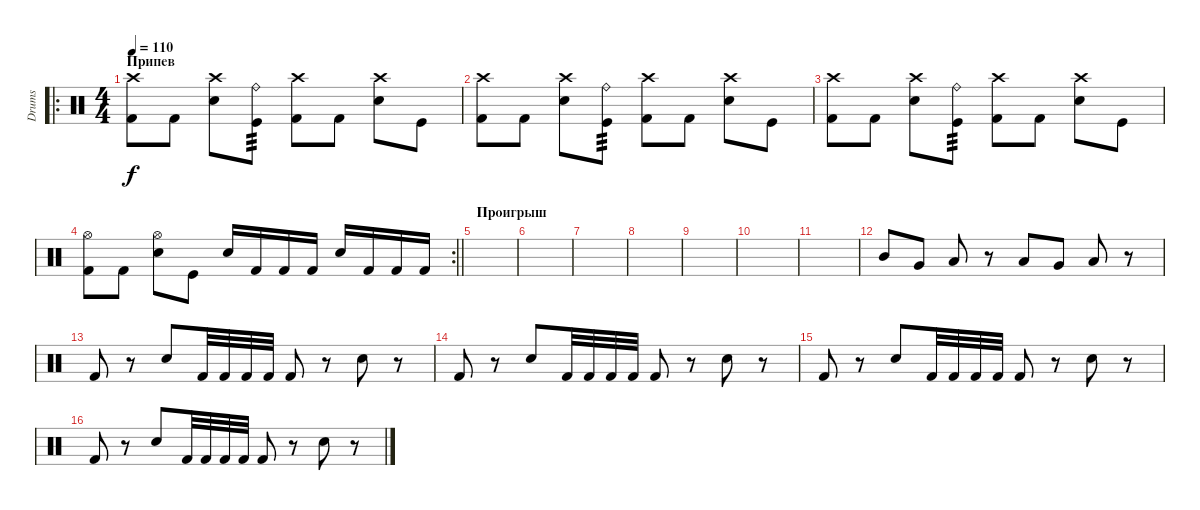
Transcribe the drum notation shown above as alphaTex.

\track ("Drums" "Drums") {instrument percussion}
\staff {score}
\articulation defaults
\ro
\ts (4 4)
\section ("" "Припев")
\tempo 110
\clef neutral
\ks c
("Crash high (hit)" "Kick (hit) 2").8{dy f} "Kick (hit) 2".8 ("Crash high (hit)" "Electric Snare (hit)").8 ("Ride (bell)" "Kick (hit)").8{tp 3} ("Crash high (hit)" "Kick (hit) 2").8 "Kick (hit) 2".8 ("Crash high (hit)" "Electric Snare (hit)").8 "Kick (hit)".8 |
("Crash high (hit)" "Kick (hit) 2").8 "Kick (hit) 2".8 ("Crash high (hit)" "Electric Snare (hit)").8 ("Ride (bell)" "Kick (hit)").8{tp 3} ("Crash high (hit)" "Kick (hit) 2").8 "Kick (hit) 2".8 ("Crash high (hit)" "Electric Snare (hit)").8 "Kick (hit)".8 |
("Crash high (hit)" "Kick (hit) 2").8 "Kick (hit) 2".8 ("Crash high (hit)" "Electric Snare (hit)").8 ("Ride (bell)" "Kick (hit)").8{tp 3} ("Crash high (hit)" "Kick (hit) 2").8 "Kick (hit) 2".8 ("Crash high (hit)" "Electric Snare (hit)").8 "Kick (hit)".8 |
\rc 2
\barLineRight lightlight
("Hi-Hat (open)" "Kick (hit) 2").8 "Kick (hit) 2".8 ("Hi-Hat (open)" "Electric Snare (hit)").8 "Kick (hit)".8 "Electric Snare (hit)".16 "Kick (hit) 2".16 "Kick (hit) 2".16 "Kick (hit) 2".16 "Electric Snare (hit)".16 "Kick (hit) 2".16 "Kick (hit) 2".16 "Kick (hit) 2".16 |
\section ("" "Проигрыш")
|
|
|
|
|
|
|
"Mid Tom (hit)".8 "Very Low Tom (hit)".8 "Low Floor Tom (hit)".8 r.8 "Low Tom (hit)".8 "Very Low Tom (hit)".8 "Low Floor Tom (hit)".8 r.8 |
"Kick (hit) 2".8 r.8 "Electric Snare (hit)".8 "Kick (hit) 2".32 "Kick (hit) 2".32 "Kick (hit) 2".32 "Kick (hit) 2".32 "Kick (hit) 2".8 r.8 "Electric Snare (hit)".8 r.8 |
"Kick (hit) 2".8 r.8 "Electric Snare (hit)".8 "Kick (hit) 2".32 "Kick (hit) 2".32 "Kick (hit) 2".32 "Kick (hit) 2".32 "Kick (hit) 2".8 r.8 "Electric Snare (hit)".8 r.8 |
"Kick (hit) 2".8 r.8 "Electric Snare (hit)".8 "Kick (hit) 2".32 "Kick (hit) 2".32 "Kick (hit) 2".32 "Kick (hit) 2".32 "Kick (hit) 2".8 r.8 "Electric Snare (hit)".8 r.8 |
"Kick (hit) 2".8 r.8 "Electric Snare (hit)".8 "Kick (hit) 2".32 "Kick (hit) 2".32 "Kick (hit) 2".32 "Kick (hit) 2".32 "Kick (hit) 2".8 r.8 "Electric Snare (hit)".8 r.8
